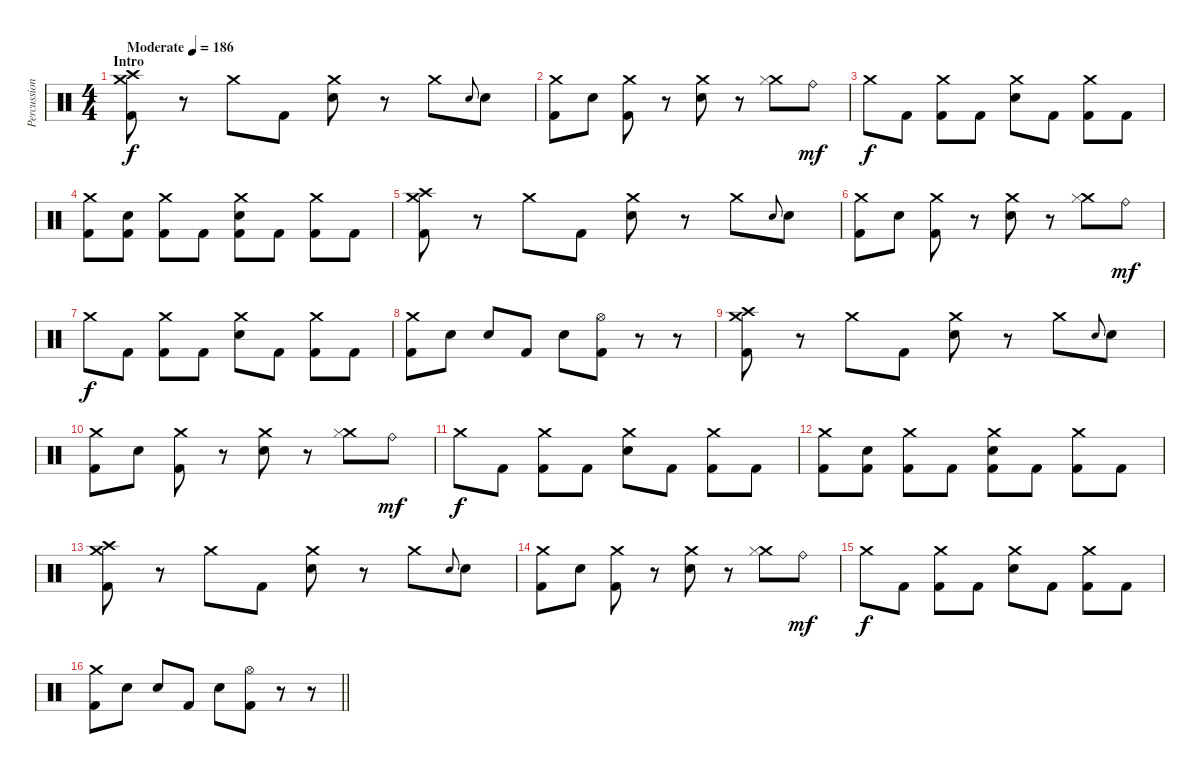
\track ("Percussion" "Percussion") {instrument percussion}
\staff {score}
\articulation defaults
\ts (4 4)
\section ("" "Intro")
\tempo (186 "Moderate")
\clef neutral
\ks c
("Crash high (hit)" "Crash medium (hit)" "Kick (hit) 2").8{dy f} r.8 "Crash medium (hit)".8 "Kick (hit) 2".8 ("Crash medium (hit)" "Electric Snare (hit)").8 r.8 "Crash medium (hit)".8 "Electric Snare (hit)".8{gr onbeat} "Electric Snare (hit)".8 |
("Crash medium (hit)" "Kick (hit) 2").8 "Electric Snare (hit)".8 ("Crash medium (hit)" "Kick (hit) 2").8 r.8 ("Crash medium (hit)" "Electric Snare (hit)").8 r.8 ("Crash medium (hit)" "Hi-Hat (closed)").8 "Ride (bell)".8{dy mf} |
"Crash medium (hit)".8{dy f} "Kick (hit) 2".8 ("Crash medium (hit)" "Kick (hit) 2").8 "Kick (hit) 2".8 ("Crash medium (hit)" "Electric Snare (hit)").8 "Kick (hit) 2".8 ("Crash medium (hit)" "Kick (hit) 2").8 "Kick (hit) 2".8 |
("Crash medium (hit)" "Kick (hit) 2").8 ("Electric Snare (hit)" "Kick (hit) 2").8 ("Crash medium (hit)" "Kick (hit) 2").8 "Kick (hit) 2".8 ("Crash medium (hit)" "Electric Snare (hit)" "Kick (hit) 2").8 "Kick (hit) 2".8 ("Crash medium (hit)" "Kick (hit) 2").8 "Kick (hit) 2".8 |
("Crash high (hit)" "Crash medium (hit)" "Kick (hit) 2").8 r.8 "Crash medium (hit)".8 "Kick (hit) 2".8 ("Crash medium (hit)" "Electric Snare (hit)").8 r.8 "Crash medium (hit)".8 "Electric Snare (hit)".8{gr onbeat} "Electric Snare (hit)".8 |
("Crash medium (hit)" "Kick (hit) 2").8 "Electric Snare (hit)".8 ("Crash medium (hit)" "Kick (hit) 2").8 r.8 ("Crash medium (hit)" "Electric Snare (hit)").8 r.8 ("Crash medium (hit)" "Hi-Hat (closed)").8 "Ride (bell)".8{dy mf} |
"Crash medium (hit)".8{dy f} "Kick (hit) 2".8 ("Crash medium (hit)" "Kick (hit) 2").8 "Kick (hit) 2".8 ("Crash medium (hit)" "Electric Snare (hit)").8 "Kick (hit) 2".8 ("Crash medium (hit)" "Kick (hit) 2").8 "Kick (hit) 2".8 |
("Crash medium (hit)" "Kick (hit) 2").8 "Electric Snare (hit)".8 "Electric Snare (hit)".8 "Kick (hit) 2".8 "Electric Snare (hit)".8 ("Hi-Hat (open)" "Kick (hit) 2").8 r.8 r.8 |
("Crash high (hit)" "Crash medium (hit)" "Kick (hit) 2").8 r.8 "Crash medium (hit)".8 "Kick (hit) 2".8 ("Crash medium (hit)" "Electric Snare (hit)").8 r.8 "Crash medium (hit)".8 "Electric Snare (hit)".8{gr onbeat} "Electric Snare (hit)".8 |
("Crash medium (hit)" "Kick (hit) 2").8 "Electric Snare (hit)".8 ("Crash medium (hit)" "Kick (hit) 2").8 r.8 ("Crash medium (hit)" "Electric Snare (hit)").8 r.8 ("Crash medium (hit)" "Hi-Hat (closed)").8 "Ride (bell)".8{dy mf} |
"Crash medium (hit)".8{dy f} "Kick (hit) 2".8 ("Crash medium (hit)" "Kick (hit) 2").8 "Kick (hit) 2".8 ("Crash medium (hit)" "Electric Snare (hit)").8 "Kick (hit) 2".8 ("Crash medium (hit)" "Kick (hit) 2").8 "Kick (hit) 2".8 |
("Crash medium (hit)" "Kick (hit) 2").8 ("Electric Snare (hit)" "Kick (hit) 2").8 ("Crash medium (hit)" "Kick (hit) 2").8 "Kick (hit) 2".8 ("Crash medium (hit)" "Electric Snare (hit)" "Kick (hit) 2").8 "Kick (hit) 2".8 ("Crash medium (hit)" "Kick (hit) 2").8 "Kick (hit) 2".8 |
("Crash high (hit)" "Crash medium (hit)" "Kick (hit) 2").8 r.8 "Crash medium (hit)".8 "Kick (hit) 2".8 ("Crash medium (hit)" "Electric Snare (hit)").8 r.8 "Crash medium (hit)".8 "Electric Snare (hit)".8{gr onbeat} "Electric Snare (hit)".8 |
("Crash medium (hit)" "Kick (hit) 2").8 "Electric Snare (hit)".8 ("Crash medium (hit)" "Kick (hit) 2").8 r.8 ("Crash medium (hit)" "Electric Snare (hit)").8 r.8 ("Crash medium (hit)" "Hi-Hat (closed)").8 "Ride (bell)".8{dy mf} |
"Crash medium (hit)".8{dy f} "Kick (hit) 2".8 ("Crash medium (hit)" "Kick (hit) 2").8 "Kick (hit) 2".8 ("Crash medium (hit)" "Electric Snare (hit)").8 "Kick (hit) 2".8 ("Crash medium (hit)" "Kick (hit) 2").8 "Kick (hit) 2".8 |
\barLineRight lightlight
("Crash medium (hit)" "Kick (hit) 2").8 "Electric Snare (hit)".8 "Electric Snare (hit)".8 "Kick (hit) 2".8 "Electric Snare (hit)".8 ("Hi-Hat (open)" "Kick (hit) 2").8 r.8 r.8
